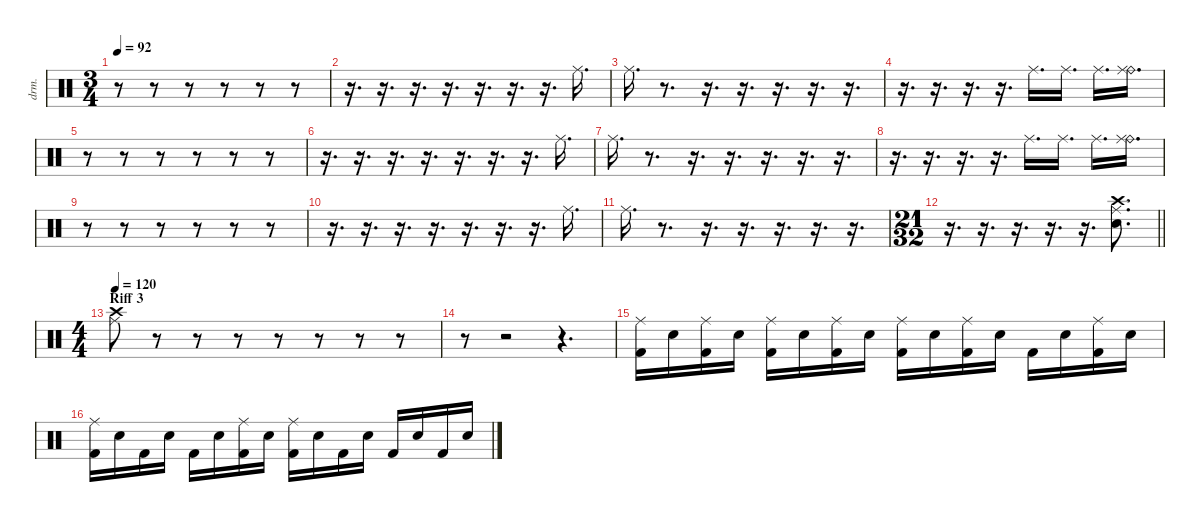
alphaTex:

\defaultSystemsLayout 4
\hideDynamics
\bracketExtendMode nobrackets
\otherSystemsTrackNameOrientation horizontal
\track ("Drums" "drm.") {instrument percussion}
\staff {score}
\articulation defaults
\ts (3 4)
\tempo 92
\clef neutral
\ks c
r.8{dy f} r.8 r.8 r.8 r.8 r.8 |
r.16{d} r.16{d} r.16{d} r.16{d} r.16{d} r.16{d} r.16{d} "Ride (middle)".16{d} |
"Ride (middle)".16{d} r.8{d} r.16{d} r.16{d} r.16{d} r.16{d} r.16{d} |
r.16{d} r.16{d} r.16{d} r.16{d} "Ride (middle)".16{d} "Ride (middle)".16{d} "Ride (middle)".16{d} ("Ride (bell)" "Ride (middle)").16{d} |
r.8 r.8 r.8 r.8 r.8 r.8 |
r.16{d} r.16{d} r.16{d} r.16{d} r.16{d} r.16{d} r.16{d} "Ride (middle)".16{d} |
"Ride (middle)".16{d} r.8{d} r.16{d} r.16{d} r.16{d} r.16{d} r.16{d} |
r.16{d} r.16{d} r.16{d} r.16{d} "Ride (middle)".16{d} "Ride (middle)".16{d} "Ride (middle)".16{d} ("Ride (bell)" "Ride (middle)").16{d} |
r.8 r.8 r.8 r.8 r.8 r.8 |
r.16{d} r.16{d} r.16{d} r.16{d} r.16{d} r.16{d} r.16{d} "Ride (middle)".16{d} |
"Ride (middle)".16{d} r.8{d} r.16{d} r.16{d} r.16{d} r.16{d} r.16{d} |
\ts (21 32)
\beaming (8 5)
\barLineRight lightlight
r.16{d} r.16{d} r.16{d} r.16{d} r.16{d} ("Crash high (hit)" "Snare (hit) 2" "Ride (middle)").8{d} |
\ts (4 4)
\beaming (8 2 2 2 2)
\section ("" "Riff 3")
\tempo 120
("Crash high (hit)" "Ride (middle)").8 r.8 r.8 r.8 r.8 r.8 r.8 r.8 |
r.8 r.2 r.4{d} |
("Ride (middle)" "Kick (hit) 2").16 "Snare (hit) 2".16 ("Ride (middle)" "Kick (hit) 2").16 "Snare (hit) 2".16 ("Ride (middle)" "Kick (hit) 2").16 "Snare (hit) 2".16 ("Ride (middle)" "Kick (hit) 2").16 "Snare (hit) 2".16 ("Ride (middle)" "Kick (hit) 2").16 "Snare (hit) 2".16 ("Ride (middle)" "Kick (hit) 2").16 "Snare (hit) 2".16 "Kick (hit) 2".16 "Snare (hit) 2".16 ("Ride (middle)" "Kick (hit) 2").16 "Snare (hit) 2".16 |
("Ride (middle)" "Kick (hit) 2").16 "Snare (hit) 2".16 "Kick (hit) 2".16 "Snare (hit) 2".16 "Kick (hit) 2".16 "Snare (hit) 2".16 ("Ride (middle)" "Kick (hit) 2").16 "Snare (hit) 2".16 ("Ride (middle)" "Kick (hit) 2").16 "Snare (hit) 2".16 "Kick (hit) 2".16 "Snare (hit) 2".16 "Kick (hit) 2".16 "Snare (hit) 2".16 "Kick (hit) 2".16 "Snare (hit) 2".16
